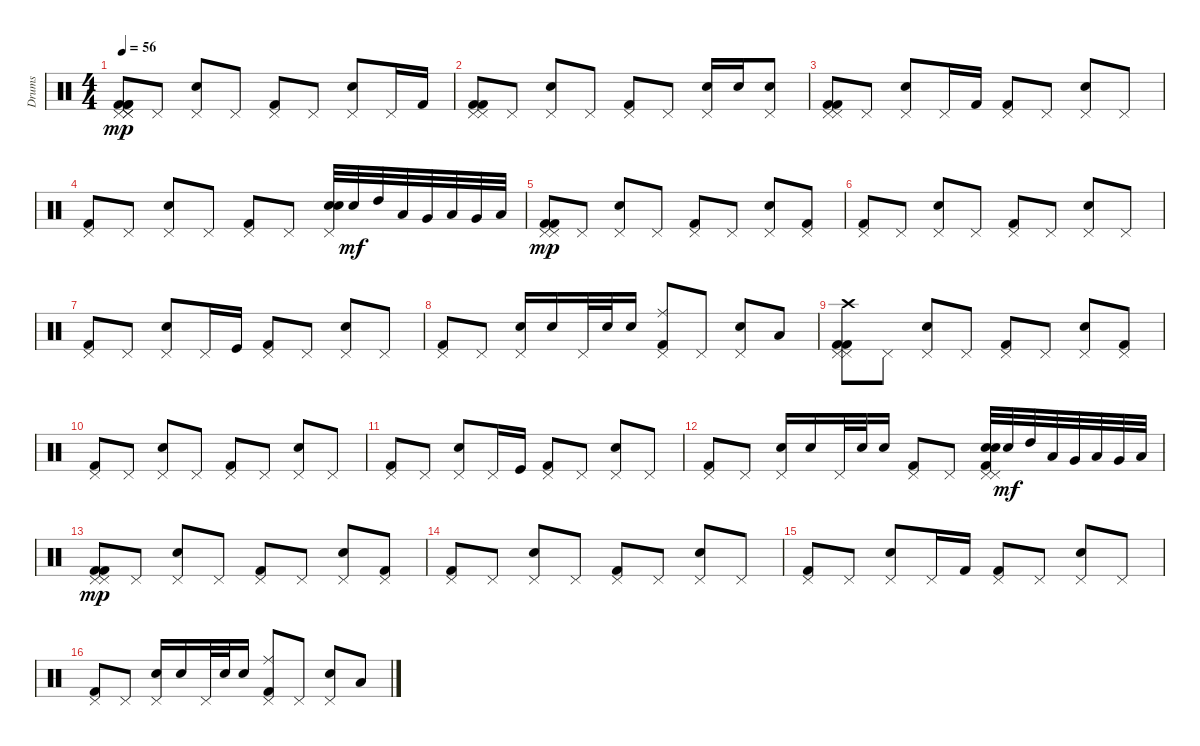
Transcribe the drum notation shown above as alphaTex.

\track ("Drums" "Drums") {instrument percussion}
\staff {score}
\articulation defaults
\ts (4 4)
\tempo 56
\clef neutral
\ks c
("Kick (hit) 2" "Pedal Hi-Hat (hit)" "Pedal Hi-Hat (hit)" "Kick (hit) 2" "Kick (hit) 2" "Pedal Hi-Hat (hit)").8{dy mp} "Pedal Hi-Hat (hit)".8 ("Snare (hit) 2" "Pedal Hi-Hat (hit)").8 "Pedal Hi-Hat (hit)".8 ("Kick (hit) 2" "Pedal Hi-Hat (hit)").8 "Pedal Hi-Hat (hit)".8 ("Snare (hit) 2" "Pedal Hi-Hat (hit)").8 "Pedal Hi-Hat (hit)".16 "Kick (hit) 2".16 |
("Kick (hit) 2" "Pedal Hi-Hat (hit)" "Kick (hit) 2" "Pedal Hi-Hat (hit)").8 "Pedal Hi-Hat (hit)".8 ("Snare (hit) 2" "Pedal Hi-Hat (hit)").8 "Pedal Hi-Hat (hit)".8 ("Kick (hit) 2" "Pedal Hi-Hat (hit)").8 "Pedal Hi-Hat (hit)".8 ("Snare (hit) 2" "Pedal Hi-Hat (hit)").16 "Electric Snare (hit)".16 ("Electric Snare (hit)" "Pedal Hi-Hat (hit)").8 |
("Kick (hit) 2" "Pedal Hi-Hat (hit)" "Pedal Hi-Hat (hit)" "Kick (hit) 2").8 "Pedal Hi-Hat (hit)".8 ("Pedal Hi-Hat (hit)" "Snare (hit) 2").8 "Pedal Hi-Hat (hit)".16 "Kick (hit) 2".16 ("Pedal Hi-Hat (hit)" "Kick (hit) 2").8 "Pedal Hi-Hat (hit)".8 ("Pedal Hi-Hat (hit)" "Snare (hit) 2").8 "Pedal Hi-Hat (hit)".8 |
("Pedal Hi-Hat (hit)" "Kick (hit) 2").8 "Pedal Hi-Hat (hit)".8 ("Pedal Hi-Hat (hit)" "Snare (hit) 2").8 "Pedal Hi-Hat (hit)".8 ("Pedal Hi-Hat (hit)" "Kick (hit) 2").8 "Pedal Hi-Hat (hit)".8 ("Electric Snare (hit)" "Pedal Hi-Hat (hit)" "Snare (hit) 2").32 "Snare (hit) 2".32{dy mf} "High Tom (hit)".32 "Low Tom (hit)".32 "Very Low Tom (hit)".32 "Low Floor Tom (hit)".32 "Very Low Tom (hit)".32 "Low Floor Tom (hit)".32 |
("Kick (hit) 2" "Pedal Hi-Hat (hit)" "Pedal Hi-Hat (hit)" "Kick (hit) 2").8{dy mp} "Pedal Hi-Hat (hit)".8 ("Snare (hit) 2" "Pedal Hi-Hat (hit)").8 "Pedal Hi-Hat (hit)".8 ("Kick (hit) 2" "Pedal Hi-Hat (hit)").8 "Pedal Hi-Hat (hit)".8 ("Snare (hit) 2" "Pedal Hi-Hat (hit)").8 ("Kick (hit) 2" "Pedal Hi-Hat (hit)").8 |
("Kick (hit) 2" "Pedal Hi-Hat (hit)").8 "Pedal Hi-Hat (hit)".8 ("Snare (hit) 2" "Pedal Hi-Hat (hit)").8 "Pedal Hi-Hat (hit)".8 ("Kick (hit) 2" "Pedal Hi-Hat (hit)").8 "Pedal Hi-Hat (hit)".8 ("Snare (hit) 2" "Pedal Hi-Hat (hit)").8 "Pedal Hi-Hat (hit)".8 |
("Kick (hit) 2" "Pedal Hi-Hat (hit)").8 "Pedal Hi-Hat (hit)".8 ("Snare (hit) 2" "Pedal Hi-Hat (hit)").8 "Pedal Hi-Hat (hit)".16 "Kick (hit)".16 ("Kick (hit) 2" "Pedal Hi-Hat (hit)").8 "Pedal Hi-Hat (hit)".8 ("Snare (hit) 2" "Pedal Hi-Hat (hit)").8 "Pedal Hi-Hat (hit)".8 |
("Kick (hit) 2" "Pedal Hi-Hat (hit)").8 "Pedal Hi-Hat (hit)".8 ("Snare (hit) 2" "Pedal Hi-Hat (hit)").16 "Electric Snare (hit)".16 "Pedal Hi-Hat (hit)".32 "Electric Snare (hit)".32 "Electric Snare (hit)".16 ("Kick (hit) 2" "Pedal Hi-Hat (hit)" "Ride (middle)").8 "Pedal Hi-Hat (hit)".8 ("Snare (hit) 2" "Pedal Hi-Hat (hit)").8 "Low Floor Tom (hit)".8 |
("Kick (hit) 2" "Pedal Hi-Hat (hit)" "Crash high (hit)" "Pedal Hi-Hat (hit)" "Kick (hit) 2").8 "Pedal Hi-Hat (hit)".8 ("Pedal Hi-Hat (hit)" "Snare (hit) 2").8 "Pedal Hi-Hat (hit)".8 ("Pedal Hi-Hat (hit)" "Kick (hit) 2").8 "Pedal Hi-Hat (hit)".8 ("Pedal Hi-Hat (hit)" "Snare (hit) 2").8 ("Pedal Hi-Hat (hit)" "Kick (hit) 2").8 |
("Pedal Hi-Hat (hit)" "Kick (hit) 2").8 "Pedal Hi-Hat (hit)".8 ("Pedal Hi-Hat (hit)" "Snare (hit) 2").8 "Pedal Hi-Hat (hit)".8 ("Pedal Hi-Hat (hit)" "Kick (hit) 2").8 "Pedal Hi-Hat (hit)".8 ("Pedal Hi-Hat (hit)" "Snare (hit) 2").8 "Pedal Hi-Hat (hit)".8 |
("Pedal Hi-Hat (hit)" "Kick (hit) 2").8 "Pedal Hi-Hat (hit)".8 ("Pedal Hi-Hat (hit)" "Snare (hit) 2").8 "Pedal Hi-Hat (hit)".16 "Kick (hit)".16 ("Pedal Hi-Hat (hit)" "Kick (hit) 2").8 "Pedal Hi-Hat (hit)".8 ("Pedal Hi-Hat (hit)" "Snare (hit) 2").8 "Pedal Hi-Hat (hit)".8 |
("Pedal Hi-Hat (hit)" "Kick (hit) 2").8 "Pedal Hi-Hat (hit)".8 ("Pedal Hi-Hat (hit)" "Snare (hit) 2").16 "Electric Snare (hit)".16 "Pedal Hi-Hat (hit)".32 "Electric Snare (hit)".32 "Electric Snare (hit)".16 ("Pedal Hi-Hat (hit)" "Kick (hit) 2").8 "Pedal Hi-Hat (hit)".8 ("Kick (hit) 2" "Pedal Hi-Hat (hit)" "Electric Snare (hit)" "Pedal Hi-Hat (hit)" "Snare (hit) 2").32 "Snare (hit) 2".32{dy mf} "High Tom (hit)".32 "Low Tom (hit)".32 "Very Low Tom (hit)".32 "Low Floor Tom (hit)".32 "Very Low Tom (hit)".32 "Low Floor Tom (hit)".32 |
("Kick (hit) 2" "Pedal Hi-Hat (hit)" "Pedal Hi-Hat (hit)" "Kick (hit) 2").8{dy mp} "Pedal Hi-Hat (hit)".8 ("Snare (hit) 2" "Pedal Hi-Hat (hit)").8 "Pedal Hi-Hat (hit)".8 ("Kick (hit) 2" "Pedal Hi-Hat (hit)").8 "Pedal Hi-Hat (hit)".8 ("Snare (hit) 2" "Pedal Hi-Hat (hit)").8 ("Kick (hit) 2" "Pedal Hi-Hat (hit)").8 |
("Kick (hit) 2" "Pedal Hi-Hat (hit)").8 "Pedal Hi-Hat (hit)".8 ("Snare (hit) 2" "Pedal Hi-Hat (hit)").8 "Pedal Hi-Hat (hit)".8 ("Kick (hit) 2" "Pedal Hi-Hat (hit)").8 "Pedal Hi-Hat (hit)".8 ("Snare (hit) 2" "Pedal Hi-Hat (hit)").8 "Pedal Hi-Hat (hit)".8 |
("Kick (hit) 2" "Pedal Hi-Hat (hit)").8 "Pedal Hi-Hat (hit)".8 ("Snare (hit) 2" "Pedal Hi-Hat (hit)").8 "Pedal Hi-Hat (hit)".16 "Kick (hit) 2".16 ("Kick (hit) 2" "Pedal Hi-Hat (hit)").8 "Pedal Hi-Hat (hit)".8 ("Snare (hit) 2" "Pedal Hi-Hat (hit)").8 "Pedal Hi-Hat (hit)".8 |
("Kick (hit) 2" "Pedal Hi-Hat (hit)").8 "Pedal Hi-Hat (hit)".8 ("Snare (hit) 2" "Pedal Hi-Hat (hit)").16 "Electric Snare (hit)".16 "Pedal Hi-Hat (hit)".32 "Electric Snare (hit)".32 "Electric Snare (hit)".16 ("Kick (hit) 2" "Pedal Hi-Hat (hit)" "Ride (middle)").8 "Pedal Hi-Hat (hit)".8 ("Snare (hit) 2" "Pedal Hi-Hat (hit)").8 "Low Floor Tom (hit)".8
